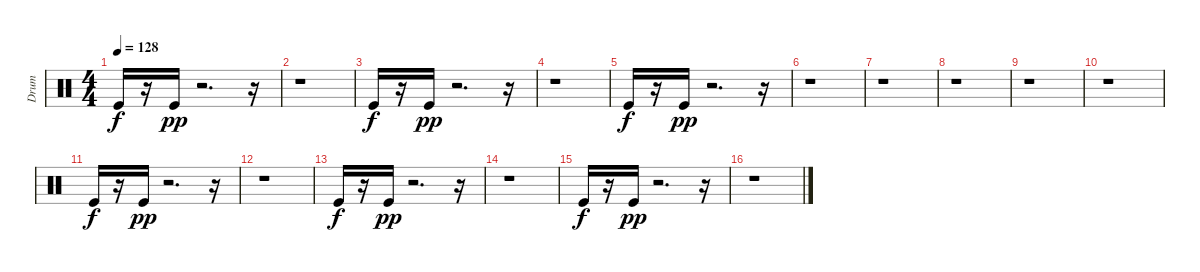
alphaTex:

\track ("Drum" "Drum") {instrument percussion}
\staff {score}
\articulation defaults
\ts (4 4)
\tempo 128
\clef neutral
\ks c "Kick (hit)".16{dy f}
r.16 "Kick (hit)".16{dy pp} r.2{d} r.16 |
r.1 |
"Kick (hit)".16{dy f} r.16 "Kick (hit)".16{dy pp} r.2{d} r.16 |
r.1 |
"Kick (hit)".16{dy f} r.16 "Kick (hit)".16{dy pp} r.2{d} r.16 |
r.1 |
r.1 |
r.1 |
r.1 |
r.1 |
"Kick (hit)".16{dy f} r.16 "Kick (hit)".16{dy pp} r.2{d} r.16 |
r.1 |
"Kick (hit)".16{dy f} r.16 "Kick (hit)".16{dy pp} r.2{d} r.16 |
r.1 |
"Kick (hit)".16{dy f} r.16 "Kick (hit)".16{dy pp} r.2{d} r.16 |
r.1
